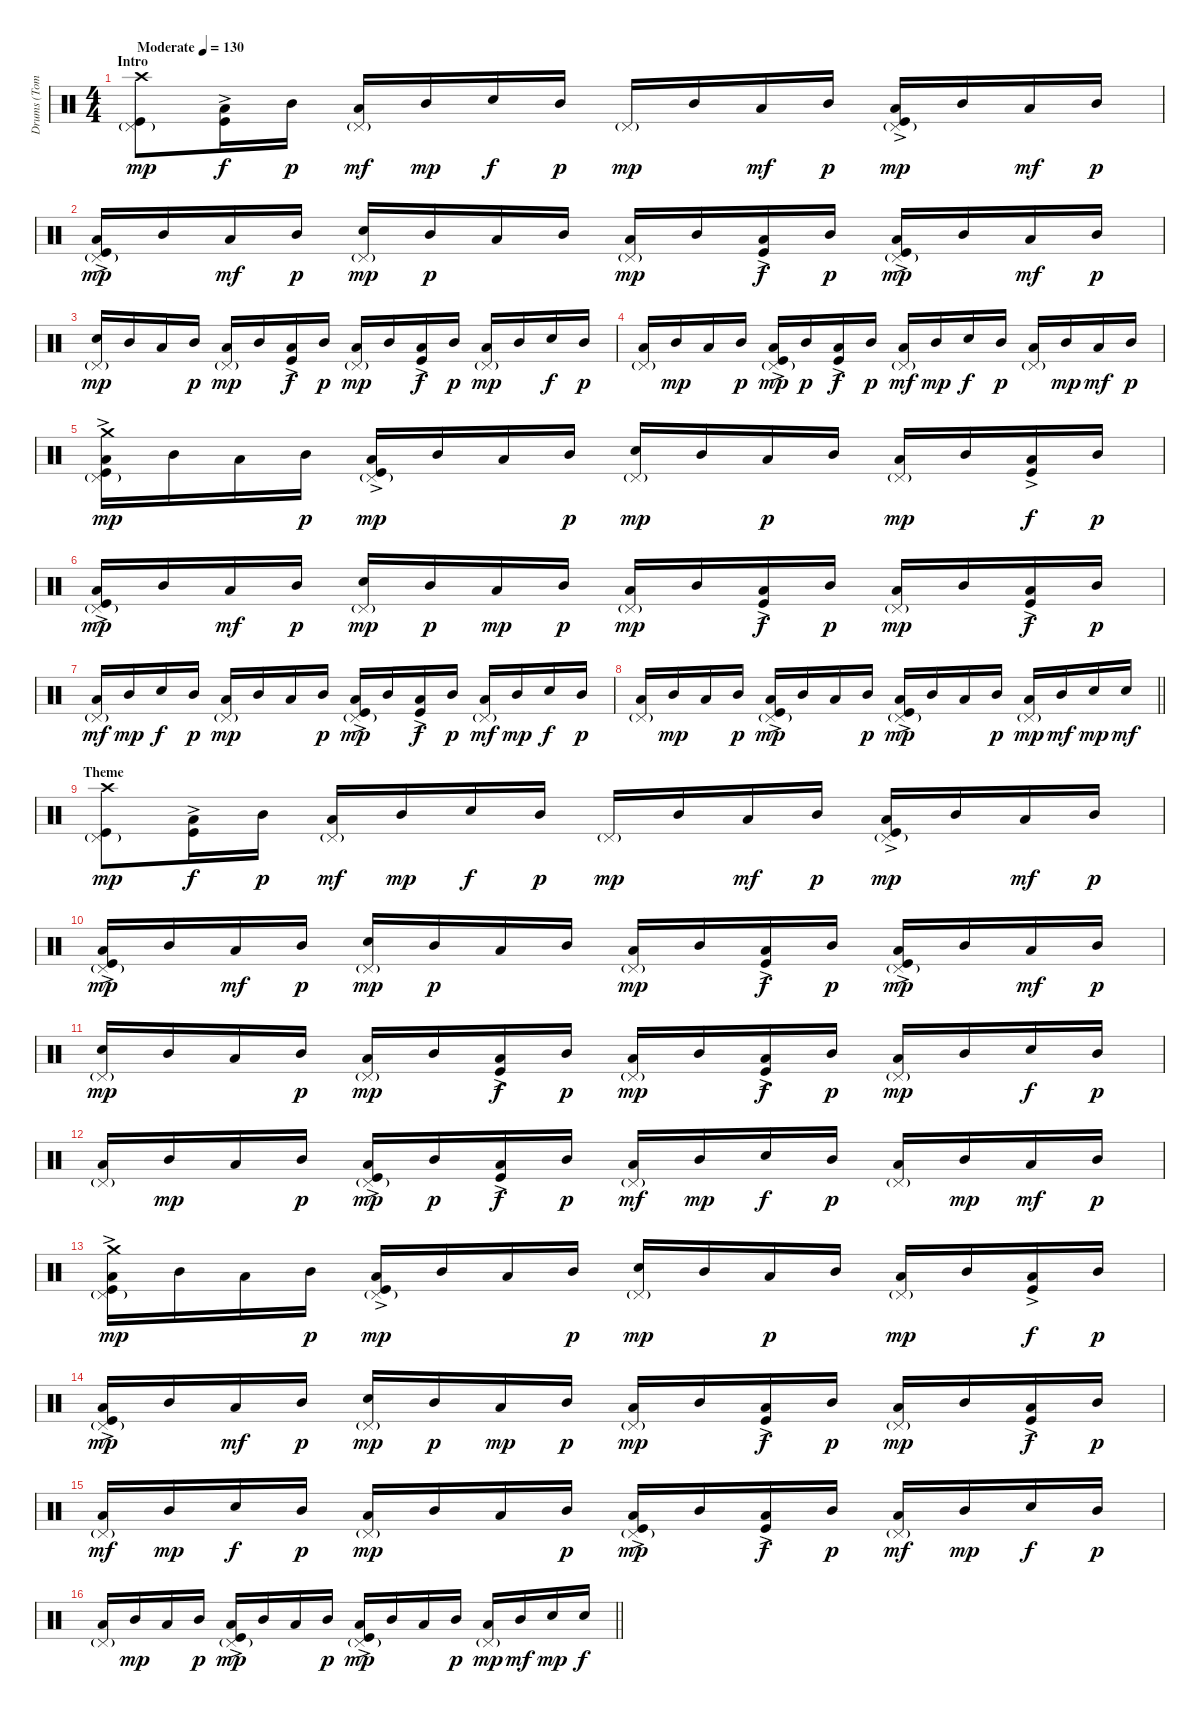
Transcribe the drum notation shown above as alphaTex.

\track ("Drums (Tomas Haake)" "Drums (Tom") {instrument percussion}
\staff {score}
\articulation defaults
\ts (4 4)
\section ("" "Intro")
\tempo (130 "Moderate")
\clef neutral
\ks c
("Crash high (hit)" "Pedal Hi-Hat (hit)"{g} "Kick (hit)").8{dy mp} ("Low Floor Tom (hit)"{ac} "Kick (hit)").16{dy f} "Mid Tom (hit)".16{dy p} ("Pedal Hi-Hat (hit)"{g} "Low Floor Tom (hit)").16{dy mf} "Mid Tom (hit)".16{dy mp} "Electric Snare (hit)".16{dy f} "Mid Tom (hit)".16{dy p} "Pedal Hi-Hat (hit)"{g}.16{dy mp} "Mid Tom (hit)".16 "Low Floor Tom (hit)".16{dy mf} "Mid Tom (hit)".16{dy p} ("Pedal Hi-Hat (hit)"{g} "Low Floor Tom (hit)"{ac} "Kick (hit)").16{dy mp} "Mid Tom (hit)".16 "Low Floor Tom (hit)".16{dy mf} "Mid Tom (hit)".16{dy p} |
("Pedal Hi-Hat (hit)"{g} "Low Floor Tom (hit)"{ac} "Kick (hit)").16{dy mp} "Mid Tom (hit)".16 "Low Floor Tom (hit)".16{dy mf} "Mid Tom (hit)".16{dy p} ("Pedal Hi-Hat (hit)"{g} "Electric Snare (hit)").16{dy mp} "Mid Tom (hit)".16{dy p} "Low Floor Tom (hit)".16 "Mid Tom (hit)".16 ("Pedal Hi-Hat (hit)"{g} "Low Floor Tom (hit)").16{dy mp} "Mid Tom (hit)".16 ("Low Floor Tom (hit)"{ac} "Kick (hit)").16{dy f} "Mid Tom (hit)".16{dy p} ("Pedal Hi-Hat (hit)"{g} "Low Floor Tom (hit)"{ac} "Kick (hit)").16{dy mp} "Mid Tom (hit)".16 "Low Floor Tom (hit)".16{dy mf} "Mid Tom (hit)".16{dy p} |
("Pedal Hi-Hat (hit)"{g} "Electric Snare (hit)").16{dy mp} "Mid Tom (hit)".16 "Low Floor Tom (hit)".16 "Mid Tom (hit)".16{dy p} ("Pedal Hi-Hat (hit)"{g} "Low Floor Tom (hit)").16{dy mp} "Mid Tom (hit)".16 ("Low Floor Tom (hit)"{ac} "Kick (hit)").16{dy f} "Mid Tom (hit)".16{dy p} ("Pedal Hi-Hat (hit)"{g} "Low Floor Tom (hit)").16{dy mp} "Mid Tom (hit)".16 ("Low Floor Tom (hit)"{ac} "Kick (hit)").16{dy f} "Mid Tom (hit)".16{dy p} ("Pedal Hi-Hat (hit)"{g} "Low Floor Tom (hit)").16{dy mp} "Mid Tom (hit)".16 "Electric Snare (hit)".16{dy f} "Mid Tom (hit)".16{dy p} |
("Pedal Hi-Hat (hit)"{g} "Low Floor Tom (hit)").16 "Mid Tom (hit)".16{dy mp} "Low Floor Tom (hit)".16 "Mid Tom (hit)".16{dy p} ("Pedal Hi-Hat (hit)"{g} "Low Floor Tom (hit)"{ac} "Kick (hit)").16{dy mp} "Mid Tom (hit)".16{dy p} ("Low Floor Tom (hit)"{ac} "Kick (hit)").16{dy f} "Mid Tom (hit)".16{dy p} ("Pedal Hi-Hat (hit)"{g} "Low Floor Tom (hit)").16{dy mf} "Mid Tom (hit)".16{dy mp} "Electric Snare (hit)".16{dy f} "Mid Tom (hit)".16{dy p} ("Pedal Hi-Hat (hit)"{g} "Low Floor Tom (hit)").16 "Mid Tom (hit)".16{dy mp} "Low Floor Tom (hit)".16{dy mf} "Mid Tom (hit)".16{dy p} |
("Crash medium (hit)" "Pedal Hi-Hat (hit)"{g} "Low Floor Tom (hit)"{ac} "Kick (hit)").16{dy mp} "Mid Tom (hit)".16 "Low Floor Tom (hit)".16 "Mid Tom (hit)".16{dy p} ("Pedal Hi-Hat (hit)"{g} "Low Floor Tom (hit)"{ac} "Kick (hit)").16{dy mp} "Mid Tom (hit)".16 "Low Floor Tom (hit)".16 "Mid Tom (hit)".16{dy p} ("Pedal Hi-Hat (hit)"{g} "Electric Snare (hit)").16{dy mp} "Mid Tom (hit)".16 "Low Floor Tom (hit)".16{dy p} "Mid Tom (hit)".16 ("Pedal Hi-Hat (hit)"{g} "Low Floor Tom (hit)").16{dy mp} "Mid Tom (hit)".16 ("Low Floor Tom (hit)"{ac} "Kick (hit)").16{dy f} "Mid Tom (hit)".16{dy p} |
("Pedal Hi-Hat (hit)"{g} "Low Floor Tom (hit)"{ac} "Kick (hit)").16{dy mp} "Mid Tom (hit)".16 "Low Floor Tom (hit)".16{dy mf} "Mid Tom (hit)".16{dy p} ("Pedal Hi-Hat (hit)"{g} "Electric Snare (hit)").16{dy mp} "Mid Tom (hit)".16{dy p} "Low Floor Tom (hit)".16{dy mp} "Mid Tom (hit)".16{dy p} ("Pedal Hi-Hat (hit)"{g} "Low Floor Tom (hit)").16{dy mp} "Mid Tom (hit)".16 ("Low Floor Tom (hit)"{ac} "Kick (hit)").16{dy f} "Mid Tom (hit)".16{dy p} ("Pedal Hi-Hat (hit)"{g} "Low Floor Tom (hit)").16{dy mp} "Mid Tom (hit)".16 ("Low Floor Tom (hit)"{ac} "Kick (hit)").16{dy f} "Mid Tom (hit)".16{dy p} |
("Pedal Hi-Hat (hit)"{g} "Low Floor Tom (hit)").16{dy mf} "Mid Tom (hit)".16{dy mp} "Electric Snare (hit)".16{dy f} "Mid Tom (hit)".16{dy p} ("Pedal Hi-Hat (hit)"{g} "Low Floor Tom (hit)").16{dy mp} "Mid Tom (hit)".16 "Low Floor Tom (hit)".16 "Mid Tom (hit)".16{dy p} ("Pedal Hi-Hat (hit)"{g} "Low Floor Tom (hit)"{ac} "Kick (hit)").16{dy mp} "Mid Tom (hit)".16 ("Low Floor Tom (hit)"{ac} "Kick (hit)").16{dy f} "Mid Tom (hit)".16{dy p} ("Pedal Hi-Hat (hit)"{g} "Low Floor Tom (hit)").16{dy mf} "Mid Tom (hit)".16{dy mp} "Electric Snare (hit)".16{dy f} "Mid Tom (hit)".16{dy p} |
\barLineRight lightlight
("Pedal Hi-Hat (hit)"{g} "Low Floor Tom (hit)").16 "Mid Tom (hit)".16{dy mp} "Low Floor Tom (hit)".16 "Mid Tom (hit)".16{dy p} ("Pedal Hi-Hat (hit)"{g} "Low Floor Tom (hit)"{ac} "Kick (hit)").16{dy mp} "Mid Tom (hit)".16 "Low Floor Tom (hit)".16 "Mid Tom (hit)".16{dy p} ("Pedal Hi-Hat (hit)"{g} "Low Floor Tom (hit)"{ac} "Kick (hit)").16{dy mp} "Mid Tom (hit)".16 "Low Floor Tom (hit)".16 "Mid Tom (hit)".16{dy p} ("Pedal Hi-Hat (hit)"{g} "Low Tom (hit)").16{dy mp} "Mid Tom (hit)".16{dy mf} "Electric Snare (hit)".16{dy mp} "Electric Snare (hit)".16{dy mf} |
\section ("" "Theme")
("Crash high (hit)" "Pedal Hi-Hat (hit)"{g} "Kick (hit)").8{dy mp} ("Low Floor Tom (hit)"{ac} "Kick (hit)").16{dy f} "Mid Tom (hit)".16{dy p} ("Pedal Hi-Hat (hit)"{g} "Low Floor Tom (hit)").16{dy mf} "Mid Tom (hit)".16{dy mp} "Electric Snare (hit)".16{dy f} "Mid Tom (hit)".16{dy p} "Pedal Hi-Hat (hit)"{g}.16{dy mp} "Mid Tom (hit)".16 "Low Floor Tom (hit)".16{dy mf} "Mid Tom (hit)".16{dy p} ("Pedal Hi-Hat (hit)"{g} "Low Floor Tom (hit)"{ac} "Kick (hit)").16{dy mp} "Mid Tom (hit)".16 "Low Floor Tom (hit)".16{dy mf} "Mid Tom (hit)".16{dy p} |
("Pedal Hi-Hat (hit)"{g} "Low Floor Tom (hit)"{ac} "Kick (hit)").16{dy mp} "Mid Tom (hit)".16 "Low Floor Tom (hit)".16{dy mf} "Mid Tom (hit)".16{dy p} ("Pedal Hi-Hat (hit)"{g} "Electric Snare (hit)").16{dy mp} "Mid Tom (hit)".16{dy p} "Low Floor Tom (hit)".16 "Mid Tom (hit)".16 ("Pedal Hi-Hat (hit)"{g} "Low Floor Tom (hit)").16{dy mp} "Mid Tom (hit)".16 ("Low Floor Tom (hit)"{ac} "Kick (hit)").16{dy f} "Mid Tom (hit)".16{dy p} ("Pedal Hi-Hat (hit)"{g} "Low Floor Tom (hit)"{ac} "Kick (hit)").16{dy mp} "Mid Tom (hit)".16 "Low Floor Tom (hit)".16{dy mf} "Mid Tom (hit)".16{dy p} |
("Pedal Hi-Hat (hit)"{g} "Electric Snare (hit)").16{dy mp} "Mid Tom (hit)".16 "Low Floor Tom (hit)".16 "Mid Tom (hit)".16{dy p} ("Pedal Hi-Hat (hit)"{g} "Low Floor Tom (hit)").16{dy mp} "Mid Tom (hit)".16 ("Low Floor Tom (hit)"{ac} "Kick (hit)").16{dy f} "Mid Tom (hit)".16{dy p} ("Pedal Hi-Hat (hit)"{g} "Low Floor Tom (hit)").16{dy mp} "Mid Tom (hit)".16 ("Low Floor Tom (hit)"{ac} "Kick (hit)").16{dy f} "Mid Tom (hit)".16{dy p} ("Pedal Hi-Hat (hit)"{g} "Low Floor Tom (hit)").16{dy mp} "Mid Tom (hit)".16 "Electric Snare (hit)".16{dy f} "Mid Tom (hit)".16{dy p} |
("Pedal Hi-Hat (hit)"{g} "Low Floor Tom (hit)").16 "Mid Tom (hit)".16{dy mp} "Low Floor Tom (hit)".16 "Mid Tom (hit)".16{dy p} ("Pedal Hi-Hat (hit)"{g} "Low Floor Tom (hit)"{ac} "Kick (hit)").16{dy mp} "Mid Tom (hit)".16{dy p} ("Low Floor Tom (hit)"{ac} "Kick (hit)").16{dy f} "Mid Tom (hit)".16{dy p} ("Pedal Hi-Hat (hit)"{g} "Low Floor Tom (hit)").16{dy mf} "Mid Tom (hit)".16{dy mp} "Electric Snare (hit)".16{dy f} "Mid Tom (hit)".16{dy p} ("Pedal Hi-Hat (hit)"{g} "Low Floor Tom (hit)").16 "Mid Tom (hit)".16{dy mp} "Low Floor Tom (hit)".16{dy mf} "Mid Tom (hit)".16{dy p} |
("Crash medium (hit)" "Pedal Hi-Hat (hit)"{g} "Low Floor Tom (hit)"{ac} "Kick (hit)").16{dy mp} "Mid Tom (hit)".16 "Low Floor Tom (hit)".16 "Mid Tom (hit)".16{dy p} ("Pedal Hi-Hat (hit)"{g} "Low Floor Tom (hit)"{ac} "Kick (hit)").16{dy mp} "Mid Tom (hit)".16 "Low Floor Tom (hit)".16 "Mid Tom (hit)".16{dy p} ("Pedal Hi-Hat (hit)"{g} "Electric Snare (hit)").16{dy mp} "Mid Tom (hit)".16 "Low Floor Tom (hit)".16{dy p} "Mid Tom (hit)".16 ("Pedal Hi-Hat (hit)"{g} "Low Floor Tom (hit)").16{dy mp} "Mid Tom (hit)".16 ("Low Floor Tom (hit)"{ac} "Kick (hit)").16{dy f} "Mid Tom (hit)".16{dy p} |
("Pedal Hi-Hat (hit)"{g} "Low Floor Tom (hit)"{ac} "Kick (hit)").16{dy mp} "Mid Tom (hit)".16 "Low Floor Tom (hit)".16{dy mf} "Mid Tom (hit)".16{dy p} ("Pedal Hi-Hat (hit)"{g} "Electric Snare (hit)").16{dy mp} "Mid Tom (hit)".16{dy p} "Low Floor Tom (hit)".16{dy mp} "Mid Tom (hit)".16{dy p} ("Pedal Hi-Hat (hit)"{g} "Low Floor Tom (hit)").16{dy mp} "Mid Tom (hit)".16 ("Low Floor Tom (hit)"{ac} "Kick (hit)").16{dy f} "Mid Tom (hit)".16{dy p} ("Pedal Hi-Hat (hit)"{g} "Low Floor Tom (hit)").16{dy mp} "Mid Tom (hit)".16 ("Low Floor Tom (hit)"{ac} "Kick (hit)").16{dy f} "Mid Tom (hit)".16{dy p} |
("Pedal Hi-Hat (hit)"{g} "Low Floor Tom (hit)").16{dy mf} "Mid Tom (hit)".16{dy mp} "Electric Snare (hit)".16{dy f} "Mid Tom (hit)".16{dy p} ("Pedal Hi-Hat (hit)"{g} "Low Floor Tom (hit)").16{dy mp} "Mid Tom (hit)".16 "Low Floor Tom (hit)".16 "Mid Tom (hit)".16{dy p} ("Pedal Hi-Hat (hit)"{g} "Low Floor Tom (hit)"{ac} "Kick (hit)").16{dy mp} "Mid Tom (hit)".16 ("Low Floor Tom (hit)"{ac} "Kick (hit)").16{dy f} "Mid Tom (hit)".16{dy p} ("Pedal Hi-Hat (hit)"{g} "Low Floor Tom (hit)").16{dy mf} "Mid Tom (hit)".16{dy mp} "Electric Snare (hit)".16{dy f} "Mid Tom (hit)".16{dy p} |
\barLineRight lightlight
("Pedal Hi-Hat (hit)"{g} "Low Floor Tom (hit)").16 "Mid Tom (hit)".16{dy mp} "Low Floor Tom (hit)".16 "Mid Tom (hit)".16{dy p} ("Pedal Hi-Hat (hit)"{g} "Low Floor Tom (hit)"{ac} "Kick (hit)").16{dy mp} "Mid Tom (hit)".16 "Low Floor Tom (hit)".16 "Mid Tom (hit)".16{dy p} ("Pedal Hi-Hat (hit)"{g} "Low Floor Tom (hit)"{ac} "Kick (hit)").16{dy mp} "Mid Tom (hit)".16 "Low Floor Tom (hit)".16 "Mid Tom (hit)".16{dy p} ("Pedal Hi-Hat (hit)"{g} "Low Tom (hit)").16{dy mp} "Mid Tom (hit)".16{dy mf} "Electric Snare (hit)".16{dy mp} "Electric Snare (hit)".16{dy f}
